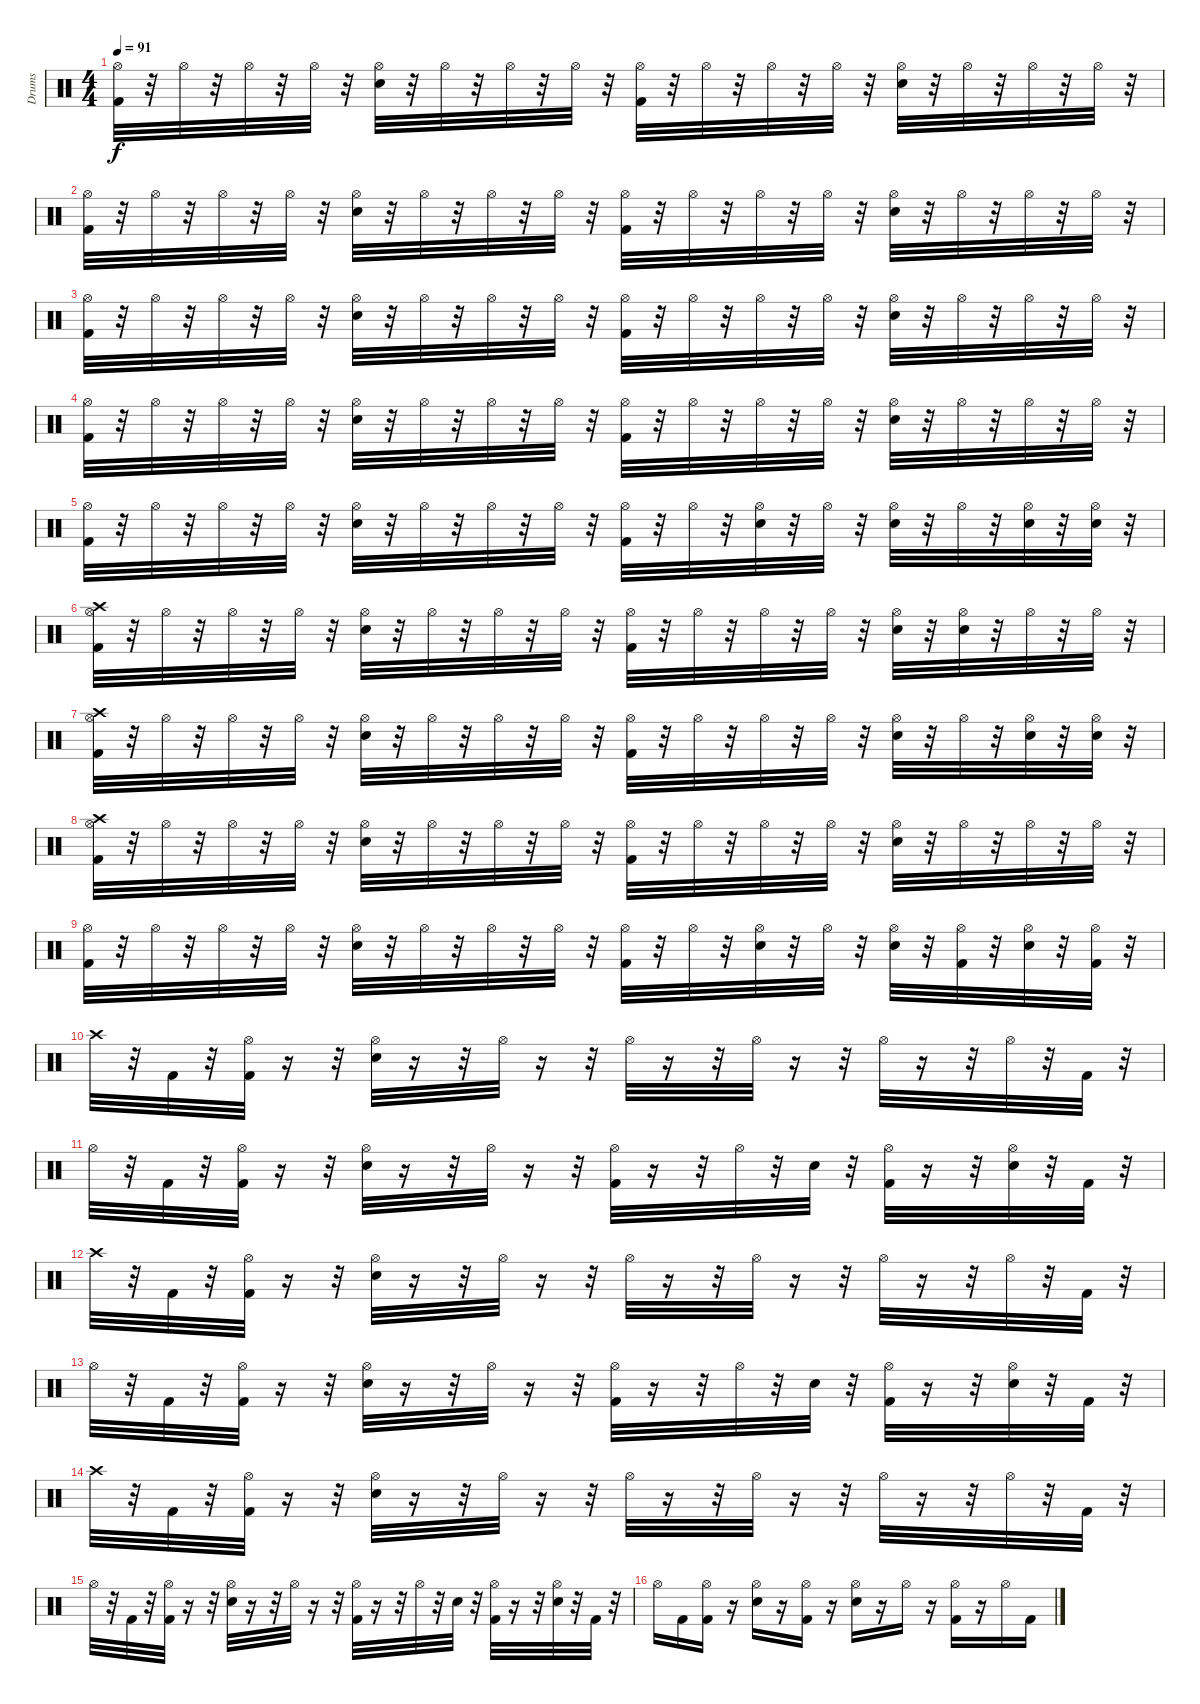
\track ("Drums" "Drums") {instrument percussion}
\staff {score}
\articulation defaults
\ts (4 4)
\tempo 91
\clef neutral
\ks c
("Kick (hit) 2" "Hi-Hat (open)").32{dy f} r.32 "Hi-Hat (open)".32 r.32 "Hi-Hat (open)".32 r.32 "Hi-Hat (open)".32 r.32 ("Snare (hit) 2" "Hi-Hat (open)").32 r.32 "Hi-Hat (open)".32 r.32 "Hi-Hat (open)".32 r.32 "Hi-Hat (open)".32 r.32 ("Kick (hit) 2" "Hi-Hat (open)").32 r.32 "Hi-Hat (open)".32 r.32 "Hi-Hat (open)".32 r.32 "Hi-Hat (open)".32 r.32 ("Snare (hit) 2" "Hi-Hat (open)").32 r.32 "Hi-Hat (open)".32 r.32 "Hi-Hat (open)".32 r.32 "Hi-Hat (open)".32 r.32 |
("Kick (hit) 2" "Hi-Hat (open)").32 r.32 "Hi-Hat (open)".32 r.32 "Hi-Hat (open)".32 r.32 "Hi-Hat (open)".32 r.32 ("Snare (hit) 2" "Hi-Hat (open)").32 r.32 "Hi-Hat (open)".32 r.32 "Hi-Hat (open)".32 r.32 "Hi-Hat (open)".32 r.32 ("Kick (hit) 2" "Hi-Hat (open)").32 r.32 "Hi-Hat (open)".32 r.32 "Hi-Hat (open)".32 r.32 "Hi-Hat (open)".32 r.32 ("Snare (hit) 2" "Hi-Hat (open)").32 r.32 "Hi-Hat (open)".32 r.32 "Hi-Hat (open)".32 r.32 "Hi-Hat (open)".32 r.32 |
("Kick (hit) 2" "Hi-Hat (open)").32 r.32 "Hi-Hat (open)".32 r.32 "Hi-Hat (open)".32 r.32 "Hi-Hat (open)".32 r.32 ("Snare (hit) 2" "Hi-Hat (open)").32 r.32 "Hi-Hat (open)".32 r.32 "Hi-Hat (open)".32 r.32 "Hi-Hat (open)".32 r.32 ("Kick (hit) 2" "Hi-Hat (open)").32 r.32 "Hi-Hat (open)".32 r.32 "Hi-Hat (open)".32 r.32 "Hi-Hat (open)".32 r.32 ("Snare (hit) 2" "Hi-Hat (open)").32 r.32 "Hi-Hat (open)".32 r.32 "Hi-Hat (open)".32 r.32 "Hi-Hat (open)".32 r.32 |
("Kick (hit) 2" "Hi-Hat (open)").32 r.32 "Hi-Hat (open)".32 r.32 "Hi-Hat (open)".32 r.32 "Hi-Hat (open)".32 r.32 ("Snare (hit) 2" "Hi-Hat (open)").32 r.32 "Hi-Hat (open)".32 r.32 "Hi-Hat (open)".32 r.32 "Hi-Hat (open)".32 r.32 ("Kick (hit) 2" "Hi-Hat (open)").32 r.32 "Hi-Hat (open)".32 r.32 "Hi-Hat (open)".32 r.32 "Hi-Hat (open)".32 r.32 ("Snare (hit) 2" "Hi-Hat (open)").32 r.32 "Hi-Hat (open)".32 r.32 "Hi-Hat (open)".32 r.32 "Hi-Hat (open)".32 r.32 |
("Kick (hit) 2" "Hi-Hat (open)").32 r.32 "Hi-Hat (open)".32 r.32 "Hi-Hat (open)".32 r.32 "Hi-Hat (open)".32 r.32 ("Snare (hit) 2" "Hi-Hat (open)").32 r.32 "Hi-Hat (open)".32 r.32 "Hi-Hat (open)".32 r.32 "Hi-Hat (open)".32 r.32 ("Kick (hit) 2" "Hi-Hat (open)").32 r.32 "Hi-Hat (open)".32 r.32 ("Snare (hit) 2" "Hi-Hat (open)").32 r.32 "Hi-Hat (open)".32 r.32 ("Snare (hit) 2" "Hi-Hat (open)").32 r.32 "Hi-Hat (open)".32 r.32 ("Snare (hit) 2" "Hi-Hat (open)").32 r.32 ("Snare (hit) 2" "Hi-Hat (open)").32 r.32 |
("Crash high (hit)" "Kick (hit) 2" "Hi-Hat (open)").32 r.32 "Hi-Hat (open)".32 r.32 "Hi-Hat (open)".32 r.32 "Hi-Hat (open)".32 r.32 ("Snare (hit) 2" "Hi-Hat (open)").32 r.32 "Hi-Hat (open)".32 r.32 "Hi-Hat (open)".32 r.32 "Hi-Hat (open)".32 r.32 ("Kick (hit) 2" "Hi-Hat (open)").32 r.32 "Hi-Hat (open)".32 r.32 "Hi-Hat (open)".32 r.32 "Hi-Hat (open)".32 r.32 ("Snare (hit) 2" "Hi-Hat (open)").32 r.32 ("Snare (hit) 2" "Hi-Hat (open)").32 r.32 "Hi-Hat (open)".32 r.32 "Hi-Hat (open)".32 r.32 |
("Crash high (hit)" "Kick (hit) 2" "Hi-Hat (open)").32 r.32 "Hi-Hat (open)".32 r.32 "Hi-Hat (open)".32 r.32 "Hi-Hat (open)".32 r.32 ("Snare (hit) 2" "Hi-Hat (open)").32 r.32 "Hi-Hat (open)".32 r.32 "Hi-Hat (open)".32 r.32 "Hi-Hat (open)".32 r.32 ("Kick (hit) 2" "Hi-Hat (open)").32 r.32 "Hi-Hat (open)".32 r.32 "Hi-Hat (open)".32 r.32 "Hi-Hat (open)".32 r.32 ("Snare (hit) 2" "Hi-Hat (open)").32 r.32 "Hi-Hat (open)".32 r.32 ("Snare (hit) 2" "Hi-Hat (open)").32 r.32 ("Snare (hit) 2" "Hi-Hat (open)").32 r.32 |
("Crash high (hit)" "Kick (hit) 2" "Hi-Hat (open)").32 r.32 "Hi-Hat (open)".32 r.32 "Hi-Hat (open)".32 r.32 "Hi-Hat (open)".32 r.32 ("Snare (hit) 2" "Hi-Hat (open)").32 r.32 "Hi-Hat (open)".32 r.32 "Hi-Hat (open)".32 r.32 "Hi-Hat (open)".32 r.32 ("Kick (hit) 2" "Hi-Hat (open)").32 r.32 "Hi-Hat (open)".32 r.32 "Hi-Hat (open)".32 r.32 "Hi-Hat (open)".32 r.32 ("Snare (hit) 2" "Hi-Hat (open)").32 r.32 "Hi-Hat (open)".32 r.32 "Hi-Hat (open)".32 r.32 "Hi-Hat (open)".32 r.32 |
("Kick (hit) 2" "Hi-Hat (open)").32 r.32 "Hi-Hat (open)".32 r.32 "Hi-Hat (open)".32 r.32 "Hi-Hat (open)".32 r.32 ("Snare (hit) 2" "Hi-Hat (open)").32 r.32 "Hi-Hat (open)".32 r.32 "Hi-Hat (open)".32 r.32 "Hi-Hat (open)".32 r.32 ("Kick (hit) 2" "Hi-Hat (open)").32 r.32 "Hi-Hat (open)".32 r.32 ("Snare (hit) 2" "Hi-Hat (open)").32 r.32 "Hi-Hat (open)".32 r.32 ("Snare (hit) 2" "Hi-Hat (open)").32 r.32 ("Kick (hit) 2" "Hi-Hat (open)").32 r.32 ("Snare (hit) 2" "Hi-Hat (open)").32 r.32 ("Kick (hit) 2" "Hi-Hat (open)").32 r.32 |
"Crash high (hit)".32 r.32 "Kick (hit) 2".32 r.32 ("Hi-Hat (open)" "Kick (hit) 2").32 r.16 r.32 ("Hi-Hat (open)" "Snare (hit) 2").32 r.16 r.32 "Hi-Hat (open)".32 r.16 r.32 "Hi-Hat (open)".32 r.16 r.32 "Hi-Hat (open)".32 r.16 r.32 "Hi-Hat (open)".32 r.16 r.32 "Hi-Hat (open)".32 r.32 "Kick (hit) 2".32 r.32 |
"Hi-Hat (open)".32 r.32 "Kick (hit) 2".32 r.32 ("Hi-Hat (open)" "Kick (hit) 2").32 r.16 r.32 ("Hi-Hat (open)" "Snare (hit) 2").32 r.16 r.32 "Hi-Hat (open)".32 r.16 r.32 ("Kick (hit) 2" "Hi-Hat (open)").32 r.16 r.32 "Hi-Hat (open)".32 r.32 "Snare (hit) 2".32 r.32 ("Kick (hit) 2" "Hi-Hat (open)").32 r.16 r.32 ("Snare (hit) 2" "Hi-Hat (open)").32 r.32 "Kick (hit) 2".32 r.32 |
"Crash high (hit)".32 r.32 "Kick (hit) 2".32 r.32 ("Hi-Hat (open)" "Kick (hit) 2").32 r.16 r.32 ("Hi-Hat (open)" "Snare (hit) 2").32 r.16 r.32 "Hi-Hat (open)".32 r.16 r.32 "Hi-Hat (open)".32 r.16 r.32 "Hi-Hat (open)".32 r.16 r.32 "Hi-Hat (open)".32 r.16 r.32 "Hi-Hat (open)".32 r.32 "Kick (hit) 2".32 r.32 |
"Hi-Hat (open)".32 r.32 "Kick (hit) 2".32 r.32 ("Hi-Hat (open)" "Kick (hit) 2").32 r.16 r.32 ("Hi-Hat (open)" "Snare (hit) 2").32 r.16 r.32 "Hi-Hat (open)".32 r.16 r.32 ("Kick (hit) 2" "Hi-Hat (open)").32 r.16 r.32 "Hi-Hat (open)".32 r.32 "Snare (hit) 2".32 r.32 ("Kick (hit) 2" "Hi-Hat (open)").32 r.16 r.32 ("Snare (hit) 2" "Hi-Hat (open)").32 r.32 "Kick (hit) 2".32 r.32 |
"Crash high (hit)".32 r.32 "Kick (hit) 2".32 r.32 ("Hi-Hat (open)" "Kick (hit) 2").32 r.16 r.32 ("Hi-Hat (open)" "Snare (hit) 2").32 r.16 r.32 "Hi-Hat (open)".32 r.16 r.32 "Hi-Hat (open)".32 r.16 r.32 "Hi-Hat (open)".32 r.16 r.32 "Hi-Hat (open)".32 r.16 r.32 "Hi-Hat (open)".32 r.32 "Kick (hit) 2".32 r.32 |
"Hi-Hat (open)".32 r.32 "Kick (hit) 2".32 r.32 ("Hi-Hat (open)" "Kick (hit) 2").32 r.16 r.32 ("Hi-Hat (open)" "Snare (hit) 2").32 r.16 r.32 "Hi-Hat (open)".32 r.16 r.32 ("Kick (hit) 2" "Hi-Hat (open)").32 r.16 r.32 "Hi-Hat (open)".32 r.32 "Snare (hit) 2".32 r.32 ("Kick (hit) 2" "Hi-Hat (open)").32 r.16 r.32 ("Snare (hit) 2" "Hi-Hat (open)").32 r.32 "Kick (hit) 2".32 r.32 |
"Hi-Hat (open)".16 "Kick (hit) 2".16 ("Hi-Hat (open)" "Kick (hit) 2").16 r.16 ("Hi-Hat (open)" "Snare (hit) 2").16 r.16 ("Kick (hit) 2" "Hi-Hat (open)").16 r.16 ("Snare (hit) 2" "Hi-Hat (open)").16 r.16 "Hi-Hat (open)".16 r.16 ("Kick (hit) 2" "Hi-Hat (open)").16 r.16 "Hi-Hat (open)".16 "Kick (hit) 2".16
